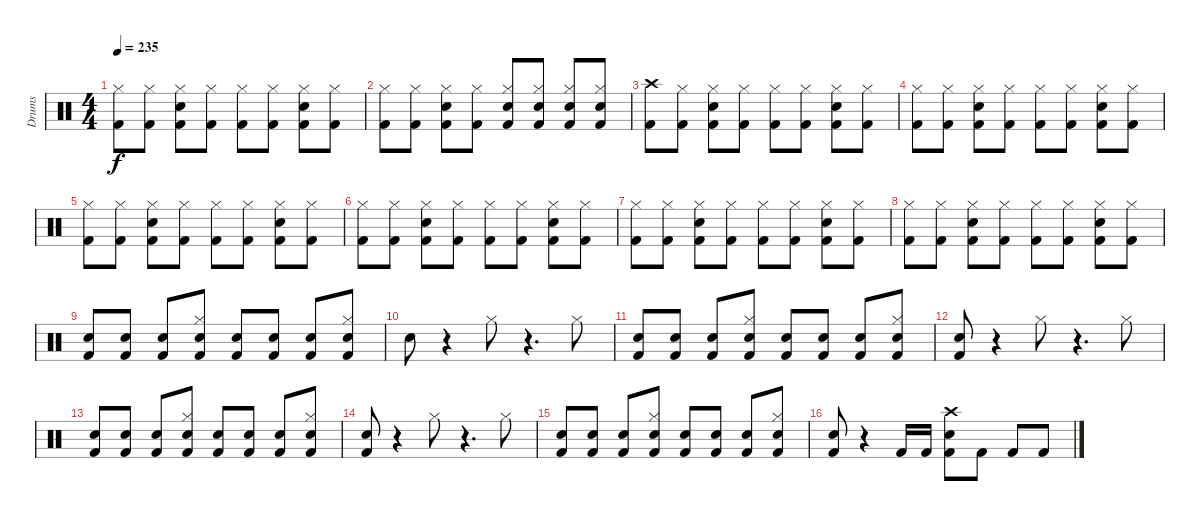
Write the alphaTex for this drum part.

\track ("Drums" "Drums") {instrument percussion}
\staff {score}
\articulation defaults
\ts (4 4)
\tempo 235
\clef neutral
\ks c
("Kick (hit) 2" "Hi-Hat (closed)").8{dy f} ("Kick (hit) 2" "Hi-Hat (closed)").8 ("Kick (hit) 2" "Snare (hit) 2" "Hi-Hat (closed)").8 ("Kick (hit) 2" "Hi-Hat (closed)").8 ("Kick (hit) 2" "Hi-Hat (closed)").8 ("Kick (hit) 2" "Hi-Hat (closed)").8 ("Kick (hit) 2" "Hi-Hat (closed)" "Snare (hit) 2").8 ("Kick (hit) 2" "Hi-Hat (closed)").8 |
("Kick (hit) 2" "Hi-Hat (closed)").8 ("Kick (hit) 2" "Hi-Hat (closed)").8 ("Kick (hit) 2" "Snare (hit) 2" "Hi-Hat (closed)").8 ("Kick (hit) 2" "Hi-Hat (closed)").8 ("Kick (hit) 2" "Hi-Hat (closed)" "Snare (hit) 2").8 ("Kick (hit) 2" "Hi-Hat (closed)" "Snare (hit) 2").8 ("Kick (hit) 2" "Hi-Hat (closed)" "Snare (hit) 2").8 ("Kick (hit) 2" "Hi-Hat (closed)" "Snare (hit) 2").8 |
("Kick (hit) 2" "Crash high (hit)").8 ("Kick (hit) 2" "Hi-Hat (closed)").8 ("Kick (hit) 2" "Snare (hit) 2" "Hi-Hat (closed)").8 ("Kick (hit) 2" "Hi-Hat (closed)").8 ("Kick (hit) 2" "Hi-Hat (closed)").8 ("Kick (hit) 2" "Hi-Hat (closed)").8 ("Kick (hit) 2" "Hi-Hat (closed)" "Snare (hit) 2").8 ("Kick (hit) 2" "Hi-Hat (closed)").8 |
("Kick (hit) 2" "Hi-Hat (closed)").8 ("Kick (hit) 2" "Hi-Hat (closed)").8 ("Kick (hit) 2" "Snare (hit) 2" "Hi-Hat (closed)").8 ("Kick (hit) 2" "Hi-Hat (closed)").8 ("Kick (hit) 2" "Hi-Hat (closed)").8 ("Kick (hit) 2" "Hi-Hat (closed)").8 ("Kick (hit) 2" "Hi-Hat (closed)" "Snare (hit) 2").8 ("Kick (hit) 2" "Hi-Hat (closed)").8 |
("Kick (hit) 2" "Hi-Hat (closed)").8 ("Kick (hit) 2" "Hi-Hat (closed)").8 ("Kick (hit) 2" "Snare (hit) 2" "Hi-Hat (closed)").8 ("Kick (hit) 2" "Hi-Hat (closed)").8 ("Kick (hit) 2" "Hi-Hat (closed)").8 ("Kick (hit) 2" "Hi-Hat (closed)").8 ("Kick (hit) 2" "Hi-Hat (closed)" "Snare (hit) 2").8 ("Kick (hit) 2" "Hi-Hat (closed)").8 |
("Kick (hit) 2" "Hi-Hat (closed)").8 ("Kick (hit) 2" "Hi-Hat (closed)").8 ("Kick (hit) 2" "Snare (hit) 2" "Hi-Hat (closed)").8 ("Kick (hit) 2" "Hi-Hat (closed)").8 ("Kick (hit) 2" "Hi-Hat (closed)").8 ("Kick (hit) 2" "Hi-Hat (closed)").8 ("Kick (hit) 2" "Hi-Hat (closed)" "Snare (hit) 2").8 ("Kick (hit) 2" "Hi-Hat (closed)").8 |
("Kick (hit) 2" "Hi-Hat (closed)").8 ("Kick (hit) 2" "Hi-Hat (closed)").8 ("Kick (hit) 2" "Snare (hit) 2" "Hi-Hat (closed)").8 ("Kick (hit) 2" "Hi-Hat (closed)").8 ("Kick (hit) 2" "Hi-Hat (closed)").8 ("Kick (hit) 2" "Hi-Hat (closed)").8 ("Kick (hit) 2" "Hi-Hat (closed)" "Snare (hit) 2").8 ("Kick (hit) 2" "Hi-Hat (closed)").8 |
("Kick (hit) 2" "Hi-Hat (closed)").8 ("Kick (hit) 2" "Hi-Hat (closed)").8 ("Kick (hit) 2" "Snare (hit) 2" "Hi-Hat (closed)").8 ("Kick (hit) 2" "Hi-Hat (closed)").8 ("Kick (hit) 2" "Hi-Hat (closed)").8 ("Kick (hit) 2" "Hi-Hat (closed)").8 ("Kick (hit) 2" "Hi-Hat (closed)" "Snare (hit) 2").8 ("Kick (hit) 2" "Hi-Hat (closed)").8 |
("Snare (hit) 2" "Kick (hit) 2").8 ("Snare (hit) 2" "Kick (hit) 2").8 ("Snare (hit) 2" "Kick (hit) 2").8 ("Snare (hit) 2" "Kick (hit) 2" "Hi-Hat (closed)").8 ("Snare (hit) 2" "Kick (hit) 2").8 ("Snare (hit) 2" "Kick (hit) 2").8 ("Snare (hit) 2" "Kick (hit) 2").8 ("Snare (hit) 2" "Kick (hit) 2" "Hi-Hat (closed)").8 |
"Snare (hit) 2".8 r.4 "Hi-Hat (closed)".8 r.4{d} "Hi-Hat (closed)".8 |
("Snare (hit) 2" "Kick (hit) 2").8 ("Snare (hit) 2" "Kick (hit) 2").8 ("Snare (hit) 2" "Kick (hit) 2").8 ("Snare (hit) 2" "Hi-Hat (closed)" "Kick (hit) 2").8 ("Snare (hit) 2" "Kick (hit) 2").8 ("Snare (hit) 2" "Kick (hit) 2").8 ("Snare (hit) 2" "Kick (hit) 2").8 ("Snare (hit) 2" "Hi-Hat (closed)" "Kick (hit) 2").8 |
("Snare (hit) 2" "Kick (hit) 2").8 r.4 "Hi-Hat (closed)".8 r.4{d} "Hi-Hat (closed)".8 |
("Snare (hit) 2" "Kick (hit) 2").8 ("Snare (hit) 2" "Kick (hit) 2").8 ("Snare (hit) 2" "Kick (hit) 2").8 ("Snare (hit) 2" "Hi-Hat (closed)" "Kick (hit) 2").8 ("Snare (hit) 2" "Kick (hit) 2").8 ("Snare (hit) 2" "Kick (hit) 2").8 ("Snare (hit) 2" "Kick (hit) 2").8 ("Snare (hit) 2" "Hi-Hat (closed)" "Kick (hit) 2").8 |
("Snare (hit) 2" "Kick (hit) 2").8 r.4 "Hi-Hat (closed)".8 r.4{d} "Hi-Hat (closed)".8 |
("Snare (hit) 2" "Kick (hit) 2").8 ("Snare (hit) 2" "Kick (hit) 2").8 ("Snare (hit) 2" "Kick (hit) 2").8 ("Snare (hit) 2" "Hi-Hat (closed)" "Kick (hit) 2").8 ("Snare (hit) 2" "Kick (hit) 2").8 ("Snare (hit) 2" "Kick (hit) 2").8 ("Snare (hit) 2" "Kick (hit) 2").8 ("Snare (hit) 2" "Hi-Hat (closed)" "Kick (hit) 2").8 |
("Snare (hit) 2" "Kick (hit) 2").8 r.4 "Kick (hit) 2".16 "Kick (hit) 2".16 ("Snare (hit) 2" "Crash high (hit)" "Kick (hit) 2").8 "Kick (hit) 2".8 "Kick (hit) 2".8 "Kick (hit) 2".8
